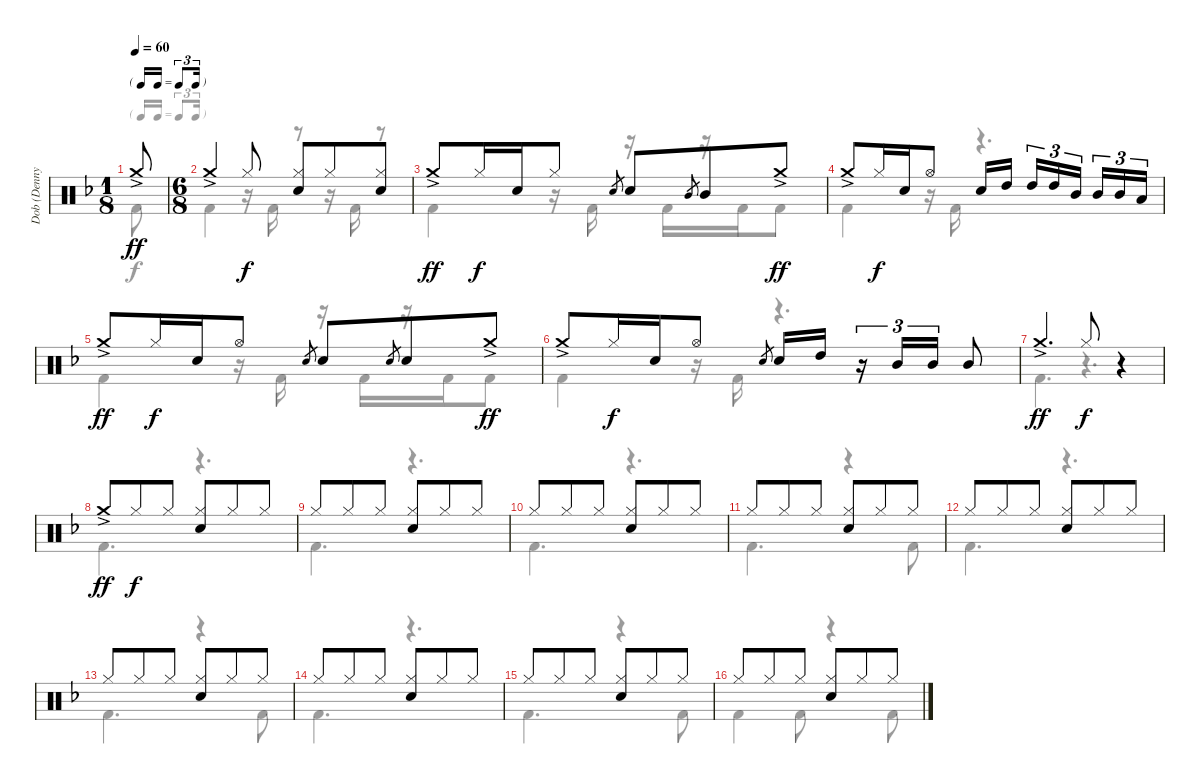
\track ("Dob (Denny Carmassy)" "Dob (Denny") {instrument percussion}
\staff {score}
\articulation defaults
\voice
\ts (1 8)
\tf triplet16th
\tempo 60
\clef neutral
\ks f "Crash medium (hit)"{ac}.8{dy ff}
|
\ts (6 8)
"Crash medium (hit)"{ac}.4 "Hi-Hat (closed)".8{dy f} ("Hi-Hat (closed)" "Electric Snare (hit)").8 "Hi-Hat (closed)".8 ("Hi-Hat (closed)" "Electric Snare (hit)").8 |
"Crash medium (hit)"{ac}.8{dy ff} "Hi-Hat (closed)".16{dy f} "Electric Snare (hit)".16 "Hi-Hat (closed)".8 "Electric Snare (hit)".8{gr} "Electric Snare (hit)".8 "Mid Tom (hit)".8{gr} "Mid Tom (hit)".8 "Crash medium (hit)"{ac}.8{dy ff} |
"Crash medium (hit)"{ac}.8 "Hi-Hat (closed)".16{dy f} "Electric Snare (hit)".16 "Hi-Hat (open)".8 "Electric Snare (hit)".16 "High Tom (hit)".16{beam splitsecondary} "High Tom (hit)".16{tu (3 2)} "High Tom (hit)".16{tu (3 2)} "Mid Tom (hit)".16{tu (3 2) beam splitsecondary} "Mid Tom (hit)".16{tu (3 2)} "Mid Tom (hit)".16{tu (3 2)} "Low Tom (hit)".16{tu (3 2)} |
"Crash medium (hit)"{ac}.8{dy ff} "Hi-Hat (closed)".16{dy f} "Electric Snare (hit)".16 "Hi-Hat (open)".8 "Electric Snare (hit)".8{gr} "Electric Snare (hit)".8 "Electric Snare (hit)".8{gr} "Electric Snare (hit)".8 "Crash medium (hit)"{ac}.8{dy ff} |
"Crash medium (hit)"{ac}.8 "Hi-Hat (closed)".16{dy f} "Electric Snare (hit)".16 "Hi-Hat (open)".8 "Electric Snare (hit)".8{gr} "Electric Snare (hit)".16 "High Tom (hit)".16 r.16{tu (3 2)} "Mid Tom (hit)".16{tu (3 2)} "Mid Tom (hit)".16{tu (3 2)} "Mid Tom (hit)".8 |
"Crash medium (hit)"{ac}.4{d dy ff} "Hi-Hat (closed)".8{dy f} r.4 |
"Crash medium (hit)"{ac}.8{dy ff} "Hi-Hat (closed)".8{dy f} "Hi-Hat (closed)".8 ("Hi-Hat (closed)" "Electric Snare (hit)").8 "Hi-Hat (closed)".8 "Hi-Hat (closed)".8 |
"Hi-Hat (closed)".8 "Hi-Hat (closed)".8 "Hi-Hat (closed)".8 ("Hi-Hat (closed)" "Electric Snare (hit)").8 "Hi-Hat (closed)".8 "Hi-Hat (closed)".8 |
"Hi-Hat (closed)".8 "Hi-Hat (closed)".8 "Hi-Hat (closed)".8 ("Hi-Hat (closed)" "Electric Snare (hit)").8 "Hi-Hat (closed)".8 "Hi-Hat (closed)".8 |
"Hi-Hat (closed)".8 "Hi-Hat (closed)".8 "Hi-Hat (closed)".8 ("Hi-Hat (closed)" "Electric Snare (hit)").8 "Hi-Hat (closed)".8 "Hi-Hat (closed)".8 |
"Hi-Hat (closed)".8 "Hi-Hat (closed)".8 "Hi-Hat (closed)".8 ("Hi-Hat (closed)" "Electric Snare (hit)").8 "Hi-Hat (closed)".8 "Hi-Hat (closed)".8 |
"Hi-Hat (closed)".8 "Hi-Hat (closed)".8 "Hi-Hat (closed)".8 ("Hi-Hat (closed)" "Electric Snare (hit)").8 "Hi-Hat (closed)".8 "Hi-Hat (closed)".8 |
"Hi-Hat (closed)".8 "Hi-Hat (closed)".8 "Hi-Hat (closed)".8 ("Hi-Hat (closed)" "Electric Snare (hit)").8 "Hi-Hat (closed)".8 "Hi-Hat (closed)".8 |
"Hi-Hat (closed)".8 "Hi-Hat (closed)".8 "Hi-Hat (closed)".8 ("Hi-Hat (closed)" "Electric Snare (hit)").8 "Hi-Hat (closed)".8 "Hi-Hat (closed)".8 |
"Hi-Hat (closed)".8 "Hi-Hat (closed)".8 "Hi-Hat (closed)".8 ("Hi-Hat (closed)" "Electric Snare (hit)").8 "Hi-Hat (closed)".8 "Hi-Hat (closed)".8
\voice
\clef neutral
\ottava regular
\simile none
\ks f "Kick (hit) 2".8{dy f}
|
"Kick (hit) 2".4 r.16 "Kick (hit) 2".16 r.8 r.16 "Kick (hit) 2".16 r.8 |
"Kick (hit) 2".4 r.16 "Kick (hit) 2".16 r.16 "Kick (hit) 2".16 r.16 "Kick (hit) 2".16 "Kick (hit) 2".8 |
"Kick (hit) 2".4 r.16 "Kick (hit) 2".16 r.4{d} |
"Kick (hit) 2".4 r.16 "Kick (hit) 2".16 r.16 "Kick (hit) 2".16 r.16 "Kick (hit) 2".16 "Kick (hit) 2".8 |
"Kick (hit) 2".4 r.16 "Kick (hit) 2".16 r.4{d} |
"Kick (hit) 2".4{d} r.4{d} |
"Kick (hit) 2".4{d} r.4{d} |
"Kick (hit) 2".4{d} r.4{d} |
"Kick (hit) 2".4{d} r.4{d} |
"Kick (hit) 2".4{d} r.4 "Kick (hit) 2".8 |
"Kick (hit) 2".4{d} r.4{d} |
"Kick (hit) 2".4{d} r.4 "Kick (hit) 2".8 |
"Kick (hit) 2".4{d} r.4{d} |
"Kick (hit) 2".4{d} r.4 "Kick (hit) 2".8 |
"Kick (hit) 2".4 "Kick (hit) 2".8 r.4 "Kick (hit) 2".8
